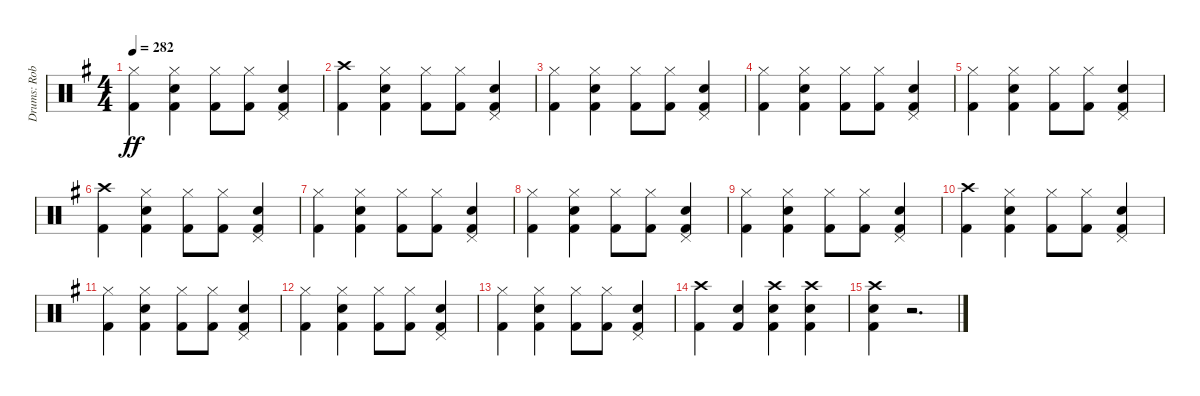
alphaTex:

\track ("Drums: Rob" "Drums: Rob") {instrument percussion}
\staff {score}
\articulation defaults
\ts (4 4)
\tempo 282
\clef neutral
\ks g
("Hi-Hat (closed)" "Kick (hit) 2").4{dy ff} ("Hi-Hat (closed)" "Snare (hit) 2" "Kick (hit) 2").4 ("Hi-Hat (closed)" "Kick (hit) 2").8 ("Hi-Hat (closed)" "Kick (hit) 2").8 ("Pedal Hi-Hat (hit)" "Snare (hit) 2" "Kick (hit) 2").4 |
("Crash high (hit)" "Kick (hit) 2").4 ("Hi-Hat (closed)" "Snare (hit) 2" "Kick (hit) 2").4 ("Hi-Hat (closed)" "Kick (hit) 2").8 ("Hi-Hat (closed)" "Kick (hit) 2").8 ("Pedal Hi-Hat (hit)" "Snare (hit) 2" "Kick (hit) 2").4 |
("Hi-Hat (closed)" "Kick (hit) 2").4 ("Hi-Hat (closed)" "Snare (hit) 2" "Kick (hit) 2").4 ("Hi-Hat (closed)" "Kick (hit) 2").8 ("Hi-Hat (closed)" "Kick (hit) 2").8 ("Pedal Hi-Hat (hit)" "Snare (hit) 2" "Kick (hit) 2").4 |
("Hi-Hat (closed)" "Kick (hit) 2").4 ("Hi-Hat (closed)" "Snare (hit) 2" "Kick (hit) 2").4 ("Hi-Hat (closed)" "Kick (hit) 2").8 ("Hi-Hat (closed)" "Kick (hit) 2").8 ("Pedal Hi-Hat (hit)" "Snare (hit) 2" "Kick (hit) 2").4 |
("Hi-Hat (closed)" "Kick (hit) 2").4 ("Hi-Hat (closed)" "Snare (hit) 2" "Kick (hit) 2").4 ("Hi-Hat (closed)" "Kick (hit) 2").8 ("Hi-Hat (closed)" "Kick (hit) 2").8 ("Pedal Hi-Hat (hit)" "Snare (hit) 2" "Kick (hit) 2").4 |
("Crash high (hit)" "Kick (hit) 2").4 ("Hi-Hat (closed)" "Snare (hit) 2" "Kick (hit) 2").4 ("Hi-Hat (closed)" "Kick (hit) 2").8 ("Hi-Hat (closed)" "Kick (hit) 2").8 ("Pedal Hi-Hat (hit)" "Snare (hit) 2" "Kick (hit) 2").4 |
("Hi-Hat (closed)" "Kick (hit) 2").4 ("Hi-Hat (closed)" "Snare (hit) 2" "Kick (hit) 2").4 ("Hi-Hat (closed)" "Kick (hit) 2").8 ("Hi-Hat (closed)" "Kick (hit) 2").8 ("Pedal Hi-Hat (hit)" "Snare (hit) 2" "Kick (hit) 2").4 |
("Hi-Hat (closed)" "Kick (hit) 2").4 ("Hi-Hat (closed)" "Snare (hit) 2" "Kick (hit) 2").4 ("Hi-Hat (closed)" "Kick (hit) 2").8 ("Hi-Hat (closed)" "Kick (hit) 2").8 ("Pedal Hi-Hat (hit)" "Snare (hit) 2" "Kick (hit) 2").4 |
("Hi-Hat (closed)" "Kick (hit) 2").4 ("Hi-Hat (closed)" "Snare (hit) 2" "Kick (hit) 2").4 ("Hi-Hat (closed)" "Kick (hit) 2").8 ("Hi-Hat (closed)" "Kick (hit) 2").8 ("Pedal Hi-Hat (hit)" "Snare (hit) 2" "Kick (hit) 2").4 |
("Crash high (hit)" "Kick (hit) 2").4 ("Hi-Hat (closed)" "Snare (hit) 2" "Kick (hit) 2").4 ("Hi-Hat (closed)" "Kick (hit) 2").8 ("Hi-Hat (closed)" "Kick (hit) 2").8 ("Pedal Hi-Hat (hit)" "Snare (hit) 2" "Kick (hit) 2").4 |
("Hi-Hat (closed)" "Kick (hit) 2").4 ("Hi-Hat (closed)" "Snare (hit) 2" "Kick (hit) 2").4 ("Hi-Hat (closed)" "Kick (hit) 2").8 ("Hi-Hat (closed)" "Kick (hit) 2").8 ("Pedal Hi-Hat (hit)" "Snare (hit) 2" "Kick (hit) 2").4 |
("Hi-Hat (closed)" "Kick (hit) 2").4 ("Hi-Hat (closed)" "Snare (hit) 2" "Kick (hit) 2").4 ("Hi-Hat (closed)" "Kick (hit) 2").8 ("Hi-Hat (closed)" "Kick (hit) 2").8 ("Pedal Hi-Hat (hit)" "Snare (hit) 2" "Kick (hit) 2").4 |
("Hi-Hat (closed)" "Kick (hit) 2").4 ("Hi-Hat (closed)" "Snare (hit) 2" "Kick (hit) 2").4 ("Hi-Hat (closed)" "Kick (hit) 2").8 ("Hi-Hat (closed)" "Kick (hit) 2").8 ("Pedal Hi-Hat (hit)" "Snare (hit) 2" "Kick (hit) 2").4 |
("Crash high (hit)" "Kick (hit) 2").4 ("Snare (hit) 2" "Kick (hit) 2").4 ("Crash high (hit)" "Snare (hit) 2" "Kick (hit) 2").4 ("Crash high (hit)" "Snare (hit) 2" "Kick (hit) 2").4 |
("Crash high (hit)" "Snare (hit) 2" "Kick (hit) 2").4 r.2{d}
